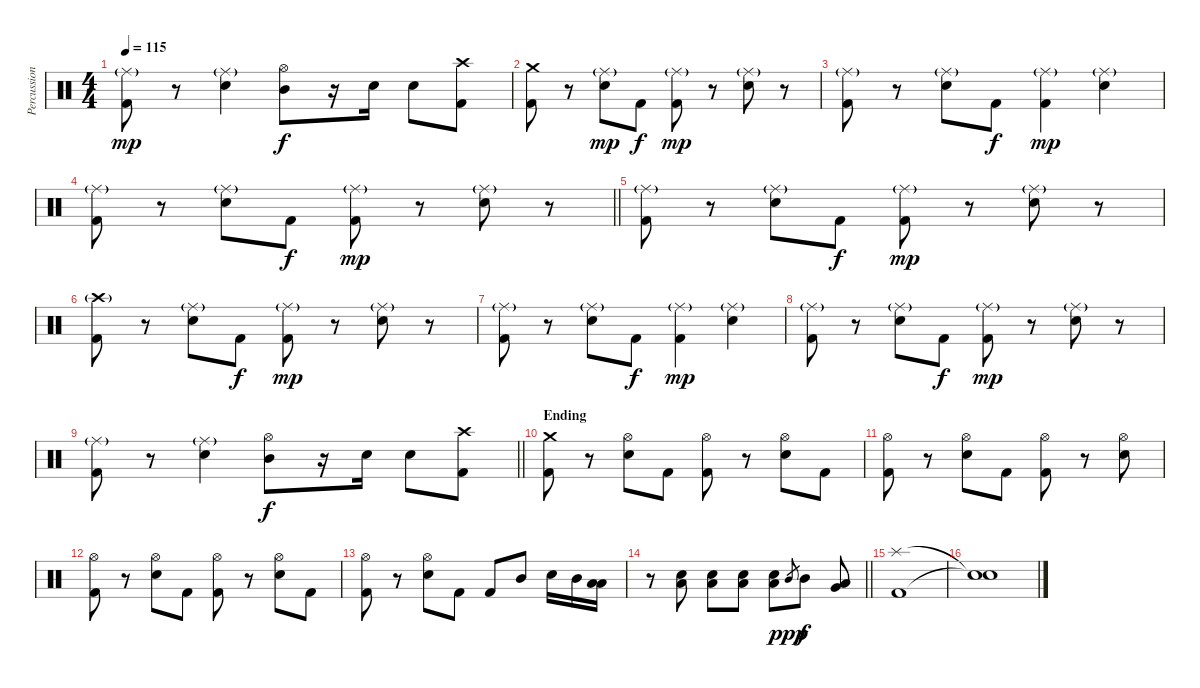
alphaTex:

\track ("Percussion" "Percussion") {instrument percussion}
\staff {score}
\articulation defaults
\ts (4 4)
\tempo 115
\clef neutral
\ks c
("Ride (middle)"{g} "Kick (hit) 2").8{dy mp} r.8 ("Ride (middle)"{g} "Electric Snare (hit)").4 ("Hi-Hat (open)" "Mid Tom (hit)").8{dy f} r.16 "Electric Snare (hit)".16 "Electric Snare (hit)".8 ("Crash high (hit)" "Kick (hit) 2").8 |
("Crash medium (hit)" "Kick (hit) 2").8 r.8 ("Ride (middle)"{g} "Electric Snare (hit)").8{dy mp} "Kick (hit) 2".8{dy f} ("Ride (middle)"{g} "Kick (hit) 2").8{dy mp} r.8 ("Ride (middle)"{g} "Electric Snare (hit)").8 r.8 |
("Ride (middle)"{g} "Kick (hit) 2").8 r.8 ("Ride (middle)"{g} "Electric Snare (hit)").8 "Kick (hit) 2".8{dy f} ("Ride (middle)"{g} "Kick (hit) 2").4{dy mp} ("Ride (middle)"{g} "Electric Snare (hit)").4 |
\barLineRight lightlight
("Ride (middle)"{g} "Kick (hit) 2").8 r.8 ("Ride (middle)"{g} "Electric Snare (hit)").8 "Kick (hit) 2".8{dy f} ("Ride (middle)"{g} "Kick (hit) 2").8{dy mp} r.8 ("Ride (middle)"{g} "Electric Snare (hit)").8 r.8 |
("Ride (middle)"{g} "Kick (hit) 2").8 r.8 ("Ride (middle)"{g} "Electric Snare (hit)").8 "Kick (hit) 2".8{dy f} ("Ride (middle)"{g} "Kick (hit) 2").8{dy mp} r.8 ("Ride (middle)"{g} "Electric Snare (hit)").8 r.8 |
("Crash high (hit)"{g} "Kick (hit) 2").8 r.8 ("Ride (middle)"{g} "Electric Snare (hit)").8 "Kick (hit) 2".8{dy f} ("Ride (middle)"{g} "Kick (hit) 2").8{dy mp} r.8 ("Ride (middle)"{g} "Electric Snare (hit)").8 r.8 |
("Ride (middle)"{g} "Kick (hit) 2").8 r.8 ("Ride (middle)"{g} "Electric Snare (hit)").8 "Kick (hit) 2".8{dy f} ("Ride (middle)"{g} "Kick (hit) 2").4{dy mp} ("Ride (middle)"{g} "Electric Snare (hit)").4 |
("Ride (middle)"{g} "Kick (hit) 2").8 r.8 ("Ride (middle)"{g} "Electric Snare (hit)").8 "Kick (hit) 2".8{dy f} ("Ride (middle)"{g} "Kick (hit) 2").8{dy mp} r.8 ("Ride (middle)"{g} "Electric Snare (hit)").8 r.8 |
\barLineRight lightlight
("Ride (middle)"{g} "Kick (hit) 2").8 r.8 ("Ride (middle)"{g} "Electric Snare (hit)").4 ("Hi-Hat (open)" "Mid Tom (hit)").8{dy f} r.16 "Electric Snare (hit)".16 "Electric Snare (hit)".8 ("Crash high (hit)" "Kick (hit) 2").8 |
\section ("" "Ending")
("Crash medium (hit)" "Kick (hit) 2").8 r.8 ("Hi-Hat (open)" "Electric Snare (hit)").8 "Kick (hit) 2".8 ("Hi-Hat (open)" "Kick (hit) 2").8 r.8 ("Hi-Hat (open)" "Electric Snare (hit)").8 "Kick (hit) 2".8 |
("Hi-Hat (open)" "Kick (hit) 2").8 r.8 ("Hi-Hat (open)" "Electric Snare (hit)").8 "Kick (hit) 2".8 ("Hi-Hat (open)" "Kick (hit) 2").8 r.8 ("Hi-Hat (open)" "Electric Snare (hit)").8 |
("Hi-Hat (open)" "Kick (hit) 2").8 r.8 ("Hi-Hat (open)" "Electric Snare (hit)").8 "Kick (hit) 2".8 ("Hi-Hat (open)" "Kick (hit) 2").8 r.8 ("Hi-Hat (open)" "Electric Snare (hit)").8 "Kick (hit) 2".8 |
("Hi-Hat (open)" "Kick (hit) 2").8 r.8 ("Hi-Hat (open)" "Electric Snare (hit)").8 "Kick (hit) 2".8 "Kick (hit) 2".8 "Mid Tom (hit)".8 "Snare (hit) 2".16 "Mid Tom (hit)".16 ("Low Floor Tom (hit)" "Low Tom (hit)").16 |
\barLineRight lightlight
r.8 ("Low Floor Tom (hit)" "Electric Snare (hit)").8 ("Low Floor Tom (hit)" "Electric Snare (hit)").8 ("Low Floor Tom (hit)" "Electric Snare (hit)").8 ("Low Floor Tom (hit)" "Electric Snare (hit)").8 "Mid Tom (hit)".8{gr dy ppp} "Mid Tom (hit)".8{dy f} ("Very Low Tom (hit)" "Low Floor Tom (hit)").8 |
("Splash (hit)" "Kick (hit) 2").1 |
("Snare (hit)"{t} "Snare (hit)"{t}).1
